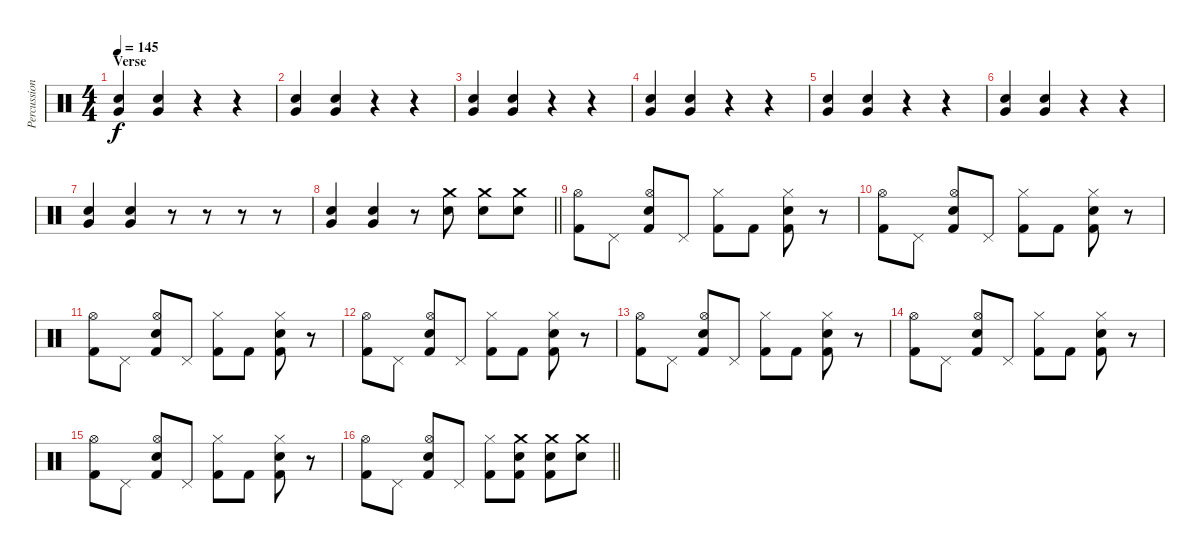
\track ("Percussion" "Percussion") {instrument percussion}
\staff {score}
\articulation defaults
\ts (4 4)
\section ("" "Verse")
\tempo 145
\clef neutral
\ks c
("Very Low Tom (hit)" "Snare (hit) 2").4{dy f} ("Very Low Tom (hit)" "Snare (hit) 2").4 r.4 r.4 |
("Very Low Tom (hit)" "Snare (hit) 2").4 ("Very Low Tom (hit)" "Snare (hit) 2").4 r.4 r.4 |
("Very Low Tom (hit)" "Snare (hit) 2").4 ("Very Low Tom (hit)" "Snare (hit) 2").4 r.4 r.4 |
("Very Low Tom (hit)" "Snare (hit) 2").4 ("Very Low Tom (hit)" "Snare (hit) 2").4 r.4 r.4 |
("Very Low Tom (hit)" "Snare (hit) 2").4 ("Very Low Tom (hit)" "Snare (hit) 2").4 r.4 r.4 |
("Very Low Tom (hit)" "Snare (hit) 2").4 ("Very Low Tom (hit)" "Snare (hit) 2").4 r.4 r.4 |
("Very Low Tom (hit)" "Snare (hit) 2").4 ("Very Low Tom (hit)" "Snare (hit) 2").4 r.8 r.8 r.8 r.8 |
\barLineRight lightlight
("Very Low Tom (hit)" "Snare (hit) 2").4 ("Very Low Tom (hit)" "Snare (hit) 2").4 r.8 ("Crash medium (hit)" "Snare (hit) 2").8 ("Crash medium (hit)" "Snare (hit) 2").8 ("Crash medium (hit)" "Snare (hit) 2").8 |
("Hi-Hat (open)" "Kick (hit) 2").8 "Pedal Hi-Hat (hit)".8 ("Hi-Hat (open)" "Snare (hit) 2" "Kick (hit) 2").8 "Pedal Hi-Hat (hit)".8 ("Hi-Hat (closed)" "Kick (hit) 2").8 "Kick (hit) 2".8 ("Hi-Hat (closed)" "Snare (hit) 2" "Kick (hit) 2").8 r.8 |
("Hi-Hat (open)" "Kick (hit) 2").8 "Pedal Hi-Hat (hit)".8 ("Hi-Hat (open)" "Snare (hit) 2" "Kick (hit) 2").8 "Pedal Hi-Hat (hit)".8 ("Hi-Hat (closed)" "Kick (hit) 2").8 "Kick (hit) 2".8 ("Hi-Hat (closed)" "Snare (hit) 2" "Kick (hit) 2").8 r.8 |
("Hi-Hat (open)" "Kick (hit) 2").8 "Pedal Hi-Hat (hit)".8 ("Hi-Hat (open)" "Snare (hit) 2" "Kick (hit) 2").8 "Pedal Hi-Hat (hit)".8 ("Hi-Hat (closed)" "Kick (hit) 2").8 "Kick (hit) 2".8 ("Hi-Hat (closed)" "Snare (hit) 2" "Kick (hit) 2").8 r.8 |
("Hi-Hat (open)" "Kick (hit) 2").8 "Pedal Hi-Hat (hit)".8 ("Hi-Hat (open)" "Snare (hit) 2" "Kick (hit) 2").8 "Pedal Hi-Hat (hit)".8 ("Hi-Hat (closed)" "Kick (hit) 2").8 "Kick (hit) 2".8 ("Hi-Hat (closed)" "Snare (hit) 2" "Kick (hit) 2").8 r.8 |
("Hi-Hat (open)" "Kick (hit) 2").8 "Pedal Hi-Hat (hit)".8 ("Hi-Hat (open)" "Snare (hit) 2" "Kick (hit) 2").8 "Pedal Hi-Hat (hit)".8 ("Hi-Hat (closed)" "Kick (hit) 2").8 "Kick (hit) 2".8 ("Hi-Hat (closed)" "Snare (hit) 2" "Kick (hit) 2").8 r.8 |
("Hi-Hat (open)" "Kick (hit) 2").8 "Pedal Hi-Hat (hit)".8 ("Hi-Hat (open)" "Snare (hit) 2" "Kick (hit) 2").8 "Pedal Hi-Hat (hit)".8 ("Hi-Hat (closed)" "Kick (hit) 2").8 "Kick (hit) 2".8 ("Hi-Hat (closed)" "Snare (hit) 2" "Kick (hit) 2").8 r.8 |
("Hi-Hat (open)" "Kick (hit) 2").8 "Pedal Hi-Hat (hit)".8 ("Hi-Hat (open)" "Snare (hit) 2" "Kick (hit) 2").8 "Pedal Hi-Hat (hit)".8 ("Hi-Hat (closed)" "Kick (hit) 2").8 "Kick (hit) 2".8 ("Hi-Hat (closed)" "Snare (hit) 2" "Kick (hit) 2").8 r.8 |
\barLineRight lightlight
("Hi-Hat (open)" "Kick (hit) 2").8 "Pedal Hi-Hat (hit)".8 ("Hi-Hat (open)" "Snare (hit) 2" "Kick (hit) 2").8 "Pedal Hi-Hat (hit)".8 ("Hi-Hat (closed)" "Kick (hit) 2").8 ("Crash medium (hit)" "Snare (hit) 2" "Kick (hit) 2").8 ("Crash medium (hit)" "Snare (hit) 2" "Kick (hit) 2").8 ("Crash medium (hit)" "Snare (hit) 2").8
